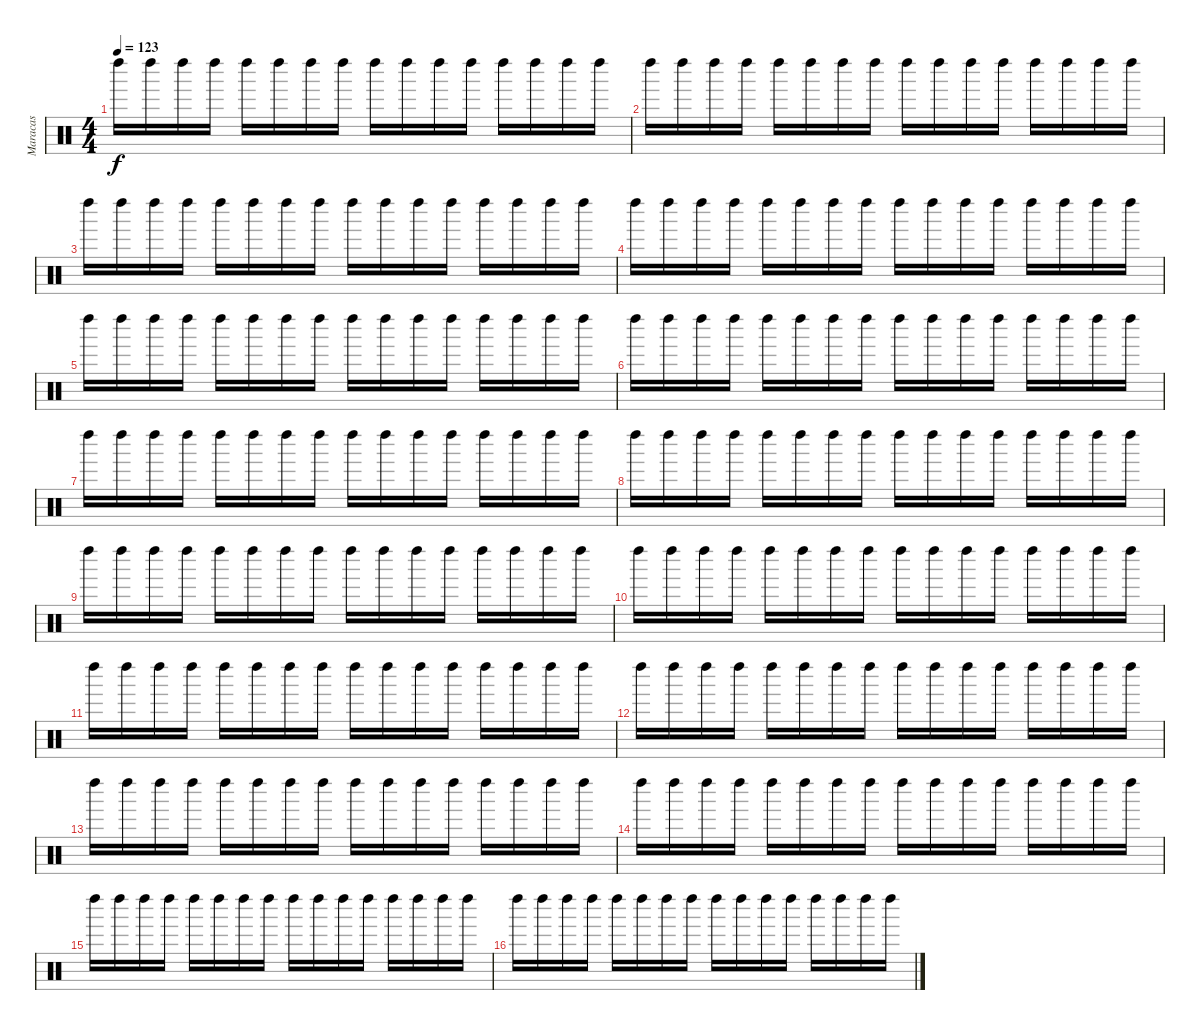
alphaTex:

\track ("Maracas" "Maracas") {instrument percussion}
\staff {score}
\articulation defaults
\ts (4 4)
\tempo 123
\clef neutral
\ks c "Left Maraca (hit)".16{dy f} "Left Maraca (hit)".16 "Left Maraca (hit)".16 "Left Maraca (hit)".16 "Left Maraca (hit)".16 "Left Maraca (hit)".16 "Left Maraca (hit)".16 "Left Maraca (hit)".16 "Left Maraca (hit)".16 "Left Maraca (hit)".16 "Left Maraca (hit)".16 "Left Maraca (hit)".16 "Left Maraca (hit)".16 "Left Maraca (hit)".16 "Left Maraca (hit)".16 "Left Maraca (hit)".16
|
"Left Maraca (hit)".16 "Left Maraca (hit)".16 "Left Maraca (hit)".16 "Left Maraca (hit)".16 "Left Maraca (hit)".16 "Left Maraca (hit)".16 "Left Maraca (hit)".16 "Left Maraca (hit)".16 "Left Maraca (hit)".16 "Left Maraca (hit)".16 "Left Maraca (hit)".16 "Left Maraca (hit)".16 "Left Maraca (hit)".16 "Left Maraca (hit)".16 "Left Maraca (hit)".16 "Left Maraca (hit)".16 |
"Left Maraca (hit)".16 "Left Maraca (hit)".16 "Left Maraca (hit)".16 "Left Maraca (hit)".16 "Left Maraca (hit)".16 "Left Maraca (hit)".16 "Left Maraca (hit)".16 "Left Maraca (hit)".16 "Left Maraca (hit)".16 "Left Maraca (hit)".16 "Left Maraca (hit)".16 "Left Maraca (hit)".16 "Left Maraca (hit)".16 "Left Maraca (hit)".16 "Left Maraca (hit)".16 "Left Maraca (hit)".16 |
"Left Maraca (hit)".16 "Left Maraca (hit)".16 "Left Maraca (hit)".16 "Left Maraca (hit)".16 "Left Maraca (hit)".16 "Left Maraca (hit)".16 "Left Maraca (hit)".16 "Left Maraca (hit)".16 "Left Maraca (hit)".16 "Left Maraca (hit)".16 "Left Maraca (hit)".16 "Left Maraca (hit)".16 "Left Maraca (hit)".16 "Left Maraca (hit)".16 "Left Maraca (hit)".16 "Left Maraca (hit)".16 |
"Left Maraca (hit)".16 "Left Maraca (hit)".16 "Left Maraca (hit)".16 "Left Maraca (hit)".16 "Left Maraca (hit)".16 "Left Maraca (hit)".16 "Left Maraca (hit)".16 "Left Maraca (hit)".16 "Left Maraca (hit)".16 "Left Maraca (hit)".16 "Left Maraca (hit)".16 "Left Maraca (hit)".16 "Left Maraca (hit)".16 "Left Maraca (hit)".16 "Left Maraca (hit)".16 "Left Maraca (hit)".16 |
"Left Maraca (hit)".16 "Left Maraca (hit)".16 "Left Maraca (hit)".16 "Left Maraca (hit)".16 "Left Maraca (hit)".16 "Left Maraca (hit)".16 "Left Maraca (hit)".16 "Left Maraca (hit)".16 "Left Maraca (hit)".16 "Left Maraca (hit)".16 "Left Maraca (hit)".16 "Left Maraca (hit)".16 "Left Maraca (hit)".16 "Left Maraca (hit)".16 "Left Maraca (hit)".16 "Left Maraca (hit)".16 |
"Left Maraca (hit)".16 "Left Maraca (hit)".16 "Left Maraca (hit)".16 "Left Maraca (hit)".16 "Left Maraca (hit)".16 "Left Maraca (hit)".16 "Left Maraca (hit)".16 "Left Maraca (hit)".16 "Left Maraca (hit)".16 "Left Maraca (hit)".16 "Left Maraca (hit)".16 "Left Maraca (hit)".16 "Left Maraca (hit)".16 "Left Maraca (hit)".16 "Left Maraca (hit)".16 "Left Maraca (hit)".16 |
"Left Maraca (hit)".16 "Left Maraca (hit)".16 "Left Maraca (hit)".16 "Left Maraca (hit)".16 "Left Maraca (hit)".16 "Left Maraca (hit)".16 "Left Maraca (hit)".16 "Left Maraca (hit)".16 "Left Maraca (hit)".16 "Left Maraca (hit)".16 "Left Maraca (hit)".16 "Left Maraca (hit)".16 "Left Maraca (hit)".16 "Left Maraca (hit)".16 "Left Maraca (hit)".16 "Left Maraca (hit)".16 |
"Left Maraca (hit)".16 "Left Maraca (hit)".16 "Left Maraca (hit)".16 "Left Maraca (hit)".16 "Left Maraca (hit)".16 "Left Maraca (hit)".16 "Left Maraca (hit)".16 "Left Maraca (hit)".16 "Left Maraca (hit)".16 "Left Maraca (hit)".16 "Left Maraca (hit)".16 "Left Maraca (hit)".16 "Left Maraca (hit)".16 "Left Maraca (hit)".16 "Left Maraca (hit)".16 "Left Maraca (hit)".16 |
"Left Maraca (hit)".16 "Left Maraca (hit)".16 "Left Maraca (hit)".16 "Left Maraca (hit)".16 "Left Maraca (hit)".16 "Left Maraca (hit)".16 "Left Maraca (hit)".16 "Left Maraca (hit)".16 "Left Maraca (hit)".16 "Left Maraca (hit)".16 "Left Maraca (hit)".16 "Left Maraca (hit)".16 "Left Maraca (hit)".16 "Left Maraca (hit)".16 "Left Maraca (hit)".16 "Left Maraca (hit)".16 |
"Left Maraca (hit)".16 "Left Maraca (hit)".16 "Left Maraca (hit)".16 "Left Maraca (hit)".16 "Left Maraca (hit)".16 "Left Maraca (hit)".16 "Left Maraca (hit)".16 "Left Maraca (hit)".16 "Left Maraca (hit)".16 "Left Maraca (hit)".16 "Left Maraca (hit)".16 "Left Maraca (hit)".16 "Left Maraca (hit)".16 "Left Maraca (hit)".16 "Left Maraca (hit)".16 "Left Maraca (hit)".16 |
"Left Maraca (hit)".16 "Left Maraca (hit)".16 "Left Maraca (hit)".16 "Left Maraca (hit)".16 "Left Maraca (hit)".16 "Left Maraca (hit)".16 "Left Maraca (hit)".16 "Left Maraca (hit)".16 "Left Maraca (hit)".16 "Left Maraca (hit)".16 "Left Maraca (hit)".16 "Left Maraca (hit)".16 "Left Maraca (hit)".16 "Left Maraca (hit)".16 "Left Maraca (hit)".16 "Left Maraca (hit)".16 |
"Left Maraca (hit)".16 "Left Maraca (hit)".16 "Left Maraca (hit)".16 "Left Maraca (hit)".16 "Left Maraca (hit)".16 "Left Maraca (hit)".16 "Left Maraca (hit)".16 "Left Maraca (hit)".16 "Left Maraca (hit)".16 "Left Maraca (hit)".16 "Left Maraca (hit)".16 "Left Maraca (hit)".16 "Left Maraca (hit)".16 "Left Maraca (hit)".16 "Left Maraca (hit)".16 "Left Maraca (hit)".16 |
"Left Maraca (hit)".16 "Left Maraca (hit)".16 "Left Maraca (hit)".16 "Left Maraca (hit)".16 "Left Maraca (hit)".16 "Left Maraca (hit)".16 "Left Maraca (hit)".16 "Left Maraca (hit)".16 "Left Maraca (hit)".16 "Left Maraca (hit)".16 "Left Maraca (hit)".16 "Left Maraca (hit)".16 "Left Maraca (hit)".16 "Left Maraca (hit)".16 "Left Maraca (hit)".16 "Left Maraca (hit)".16 |
"Left Maraca (hit)".16 "Left Maraca (hit)".16 "Left Maraca (hit)".16 "Left Maraca (hit)".16 "Left Maraca (hit)".16 "Left Maraca (hit)".16 "Left Maraca (hit)".16 "Left Maraca (hit)".16 "Left Maraca (hit)".16 "Left Maraca (hit)".16 "Left Maraca (hit)".16 "Left Maraca (hit)".16 "Left Maraca (hit)".16 "Left Maraca (hit)".16 "Left Maraca (hit)".16 "Left Maraca (hit)".16 |
"Left Maraca (hit)".16 "Left Maraca (hit)".16 "Left Maraca (hit)".16 "Left Maraca (hit)".16 "Left Maraca (hit)".16 "Left Maraca (hit)".16 "Left Maraca (hit)".16 "Left Maraca (hit)".16 "Left Maraca (hit)".16 "Left Maraca (hit)".16 "Left Maraca (hit)".16 "Left Maraca (hit)".16 "Left Maraca (hit)".16 "Left Maraca (hit)".16 "Left Maraca (hit)".16 "Left Maraca (hit)".16
